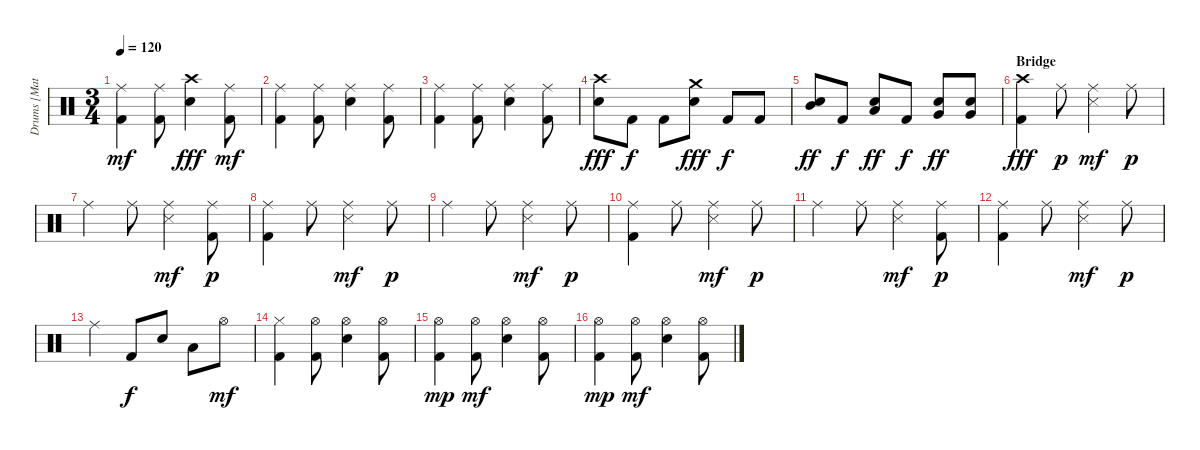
\track ("Drums [Matt]" "Drums [Mat") {instrument percussion}
\staff {score}
\articulation defaults
\ts (3 4)
\tempo 120
\clef neutral
\ks c
("Ride (middle)" "Kick (hit) 2").4{dy mf} ("Ride (middle)" "Kick (hit) 2").8 ("Crash high (hit)" "Snare (hit) 2").4{dy fff} ("Ride (middle)" "Kick (hit) 2").8{dy mf} |
("Ride (middle)" "Kick (hit) 2").4 ("Ride (middle)" "Kick (hit) 2").8 ("Ride (middle)" "Snare (hit) 2").4 ("Ride (middle)" "Kick (hit) 2").8 |
("Ride (middle)" "Kick (hit) 2").4 ("Ride (middle)" "Kick (hit) 2").8 ("Ride (middle)" "Snare (hit) 2").4 ("Ride (middle)" "Kick (hit) 2").8 |
("Crash high (hit)" "Snare (hit) 2").8{dy fff} "Kick (hit) 2".8{dy f} "Kick (hit) 2".8 ("Crash medium (hit)" "Snare (hit) 2").8{dy fff} "Kick (hit) 2".8{dy f} "Kick (hit) 2".8 |
("Snare (hit) 2" "Mid Tom (hit)").8{dy ff} "Kick (hit) 2".8{dy f} ("Snare (hit) 2" "Low Tom (hit)").8{dy ff} "Kick (hit) 2".8{dy f} ("Snare (hit) 2" "Very Low Tom (hit)").8{dy ff} ("Snare (hit) 2" "Very Low Tom (hit)").8 |
\section ("" "Bridge")
("Crash high (hit)" "Kick (hit) 2").4{dy fff} "Ride (middle)".8{dy p} ("Ride (middle)" "Snare (side stick) 3").4{dy mf} "Ride (middle)".8{dy p} |
"Ride (middle)".4 "Ride (middle)".8 ("Ride (middle)" "Snare (side stick) 3").4{dy mf} ("Ride (middle)" "Kick (hit) 2").8{dy p} |
("Ride (middle)" "Kick (hit) 2").4 "Ride (middle)".8 ("Ride (middle)" "Snare (side stick) 3").4{dy mf} "Ride (middle)".8{dy p} |
"Ride (middle)".4 "Ride (middle)".8 ("Ride (middle)" "Snare (side stick) 3").4{dy mf} "Ride (middle)".8{dy p} |
("Ride (middle)" "Kick (hit) 2").4 "Ride (middle)".8 ("Ride (middle)" "Snare (side stick) 3").4{dy mf} "Ride (middle)".8{dy p} |
"Ride (middle)".4 "Ride (middle)".8 ("Ride (middle)" "Snare (side stick) 3").4{dy mf} ("Ride (middle)" "Kick (hit) 2").8{dy p} |
("Ride (middle)" "Kick (hit) 2").4 "Ride (middle)".8 ("Ride (middle)" "Snare (side stick) 3").4{dy mf} "Ride (middle)".8{dy p} |
"Ride (middle)".4 "Kick (hit) 2".8{dy f} "Snare (hit) 2".8 "Low Tom (hit)".8 "Hi-Hat (open)".8{dy mf} |
("Hi-Hat (closed)" "Kick (hit) 2").4 ("Hi-Hat (open)" "Kick (hit) 2").8 ("Hi-Hat (open)" "Snare (hit) 2").4 ("Hi-Hat (open)" "Kick (hit) 2").8 |
("Hi-Hat (open)" "Kick (hit) 2").4{dy mp} ("Hi-Hat (open)" "Kick (hit) 2").8{dy mf} ("Hi-Hat (open)" "Snare (hit) 2").4 ("Hi-Hat (open)" "Kick (hit) 2").8 |
("Hi-Hat (open)" "Kick (hit) 2").4{dy mp} ("Hi-Hat (open)" "Kick (hit) 2").8{dy mf} ("Hi-Hat (open)" "Snare (hit) 2").4 ("Hi-Hat (open)" "Kick (hit) 2").8
